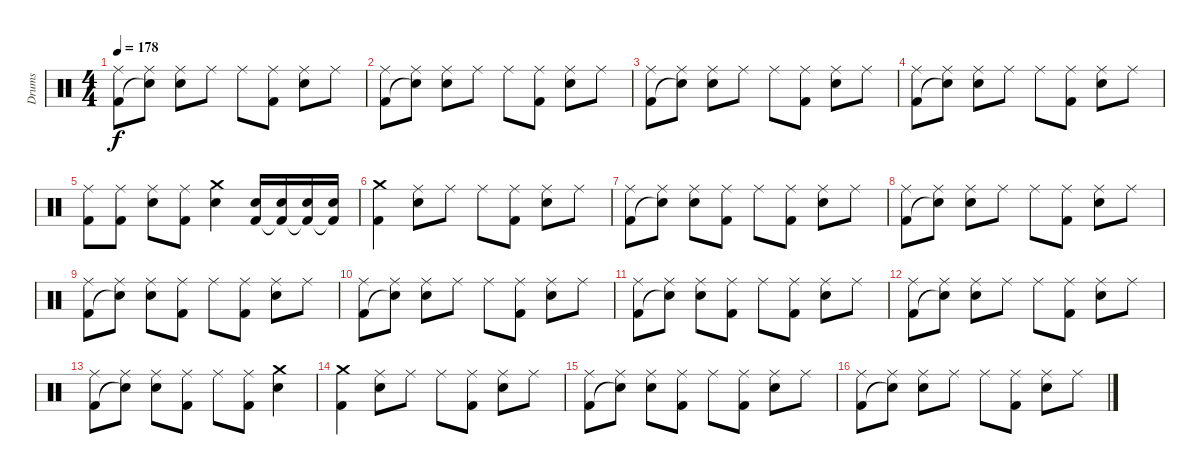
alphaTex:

\track ("Drums" "Drums") {instrument percussion}
\staff {score}
\articulation defaults
\ts (4 4)
\tempo 178
\clef neutral
\ks c
("Ride (middle)" "Kick (hit) 2").8{dy f} ("Ride (middle)" "Snare (hit)"{t}).8 ("Ride (middle)" "Electric Snare (hit)").8 "Ride (middle)".8 "Ride (middle)".8 ("Ride (middle)" "Kick (hit) 2").8 ("Ride (middle)" "Electric Snare (hit)").8 "Ride (middle)".8 |
("Ride (middle)" "Kick (hit) 2").8 ("Ride (middle)" "Snare (hit)"{t}).8 ("Ride (middle)" "Electric Snare (hit)").8 "Ride (middle)".8 "Ride (middle)".8 ("Ride (middle)" "Kick (hit) 2").8 ("Ride (middle)" "Electric Snare (hit)").8 "Ride (middle)".8 |
("Ride (middle)" "Kick (hit) 2").8 ("Ride (middle)" "Snare (hit)"{t}).8 ("Ride (middle)" "Electric Snare (hit)").8 "Ride (middle)".8 "Ride (middle)".8 ("Ride (middle)" "Kick (hit) 2").8 ("Ride (middle)" "Electric Snare (hit)").8 "Ride (middle)".8 |
("Ride (middle)" "Kick (hit) 2").8 ("Ride (middle)" "Snare (hit)"{t}).8 ("Ride (middle)" "Electric Snare (hit)").8 "Ride (middle)".8 "Ride (middle)".8 ("Ride (middle)" "Kick (hit) 2").8 ("Ride (middle)" "Electric Snare (hit)").8 "Ride (middle)".8 |
("Ride (middle)" "Kick (hit) 2").8 ("Ride (middle)" "Kick (hit) 2").8 ("Ride (middle)" "Electric Snare (hit)").8 ("Ride (middle)" "Kick (hit) 2").8 ("Crash medium (hit)" "Electric Snare (hit)").4 ("Electric Snare (hit)" "Kick (hit) 2").16 ("Electric Snare (hit)" "Kick (hit) 2"{t}).16 ("Electric Snare (hit)" "Kick (hit) 2"{t}).16 ("Electric Snare (hit)" "Kick (hit) 2"{t}).16 |
("Crash medium (hit)" "Kick (hit) 2").4 ("Ride (middle)" "Electric Snare (hit)").8 "Ride (middle)".8 "Ride (middle)".8 ("Ride (middle)" "Kick (hit) 2").8 ("Ride (middle)" "Electric Snare (hit)").8 "Ride (middle)".8 |
("Ride (middle)" "Kick (hit) 2").8 ("Ride (middle)" "Snare (hit)"{t}).8 ("Ride (middle)" "Electric Snare (hit)").8 ("Ride (middle)" "Kick (hit) 2").8 "Ride (middle)".8 ("Ride (middle)" "Kick (hit) 2").8 ("Ride (middle)" "Electric Snare (hit)").8 "Ride (middle)".8 |
("Ride (middle)" "Kick (hit) 2").8 ("Ride (middle)" "Snare (hit)"{t}).8 ("Ride (middle)" "Electric Snare (hit)").8 "Ride (middle)".8 "Ride (middle)".8 ("Ride (middle)" "Kick (hit) 2").8 ("Ride (middle)" "Electric Snare (hit)").8 "Ride (middle)".8 |
("Ride (middle)" "Kick (hit) 2").8 ("Ride (middle)" "Snare (hit)"{t}).8 ("Ride (middle)" "Electric Snare (hit)").8 ("Ride (middle)" "Kick (hit) 2").8 "Ride (middle)".8 ("Ride (middle)" "Kick (hit) 2").8 ("Ride (middle)" "Electric Snare (hit)").8 "Ride (middle)".8 |
("Ride (middle)" "Kick (hit) 2").8 ("Ride (middle)" "Snare (hit)"{t}).8 ("Ride (middle)" "Electric Snare (hit)").8 "Ride (middle)".8 "Ride (middle)".8 ("Ride (middle)" "Kick (hit) 2").8 ("Ride (middle)" "Electric Snare (hit)").8 "Ride (middle)".8 |
("Ride (middle)" "Kick (hit) 2").8 ("Ride (middle)" "Snare (hit)"{t}).8 ("Ride (middle)" "Electric Snare (hit)").8 ("Ride (middle)" "Kick (hit) 2").8 "Ride (middle)".8 ("Ride (middle)" "Kick (hit) 2").8 ("Ride (middle)" "Electric Snare (hit)").8 "Ride (middle)".8 |
("Ride (middle)" "Kick (hit) 2").8 ("Ride (middle)" "Snare (hit)"{t}).8 ("Ride (middle)" "Electric Snare (hit)").8 "Ride (middle)".8 "Ride (middle)".8 ("Ride (middle)" "Kick (hit) 2").8 ("Ride (middle)" "Electric Snare (hit)").8 "Ride (middle)".8 |
("Ride (middle)" "Kick (hit) 2").8 ("Ride (middle)" "Snare (hit)"{t}).8 ("Ride (middle)" "Electric Snare (hit)").8 ("Ride (middle)" "Kick (hit) 2").8 "Ride (middle)".8 ("Ride (middle)" "Kick (hit) 2").8 ("Crash medium (hit)" "Electric Snare (hit)").4 |
("Crash medium (hit)" "Kick (hit) 2").4 ("Ride (middle)" "Electric Snare (hit)").8 "Ride (middle)".8 "Ride (middle)".8 ("Ride (middle)" "Kick (hit) 2").8 ("Ride (middle)" "Electric Snare (hit)").8 "Ride (middle)".8 |
("Ride (middle)" "Kick (hit) 2").8 ("Ride (middle)" "Snare (hit)"{t}).8 ("Ride (middle)" "Electric Snare (hit)").8 ("Ride (middle)" "Kick (hit) 2").8 "Ride (middle)".8 ("Ride (middle)" "Kick (hit) 2").8 ("Ride (middle)" "Electric Snare (hit)").8 "Ride (middle)".8 |
("Ride (middle)" "Kick (hit) 2").8 ("Ride (middle)" "Snare (hit)"{t}).8 ("Ride (middle)" "Electric Snare (hit)").8 "Ride (middle)".8 "Ride (middle)".8 ("Ride (middle)" "Kick (hit) 2").8 ("Ride (middle)" "Electric Snare (hit)").8 "Ride (middle)".8
